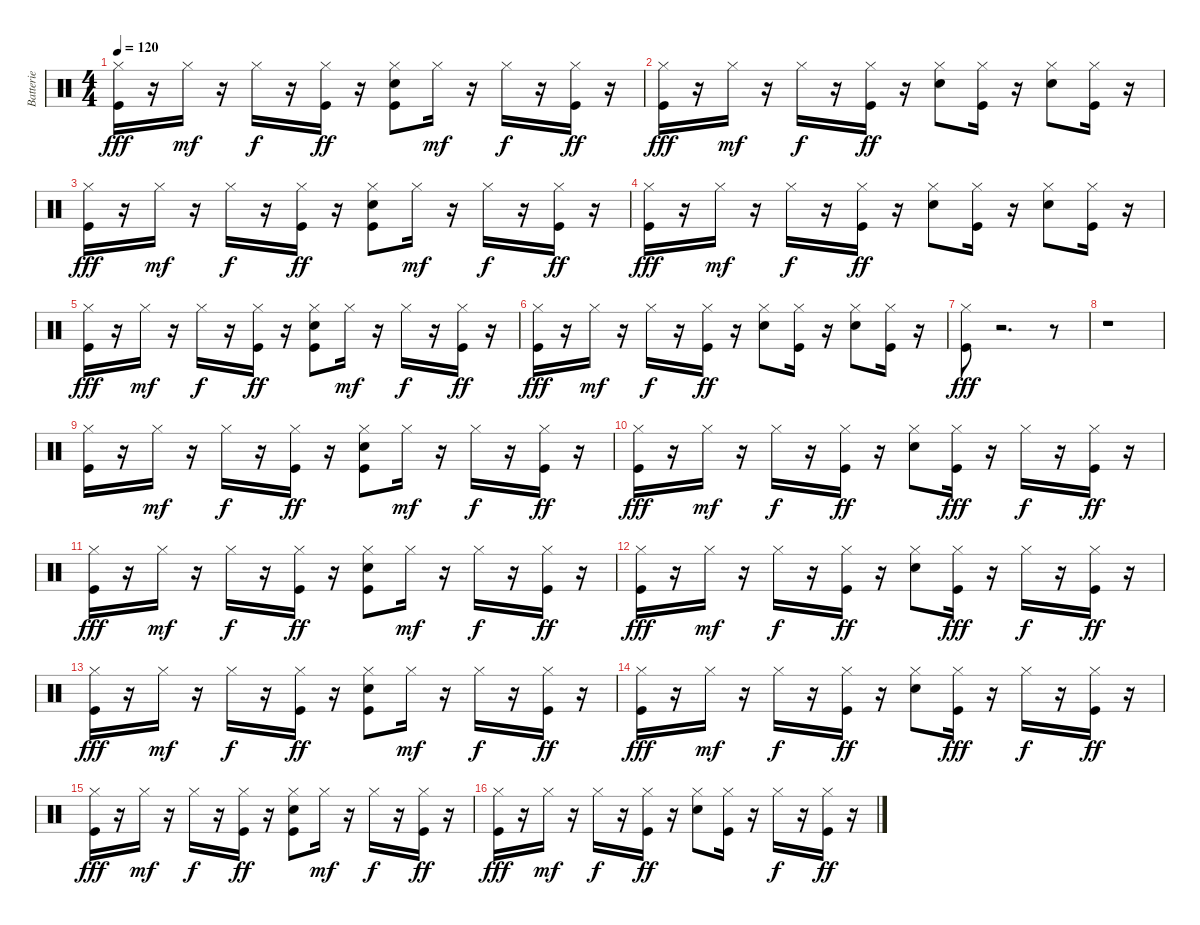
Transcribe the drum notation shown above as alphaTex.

\track ("Batterie" "Batterie") {instrument percussion}
\staff {score}
\articulation defaults
\ts (4 4)
\tempo 120
\clef neutral
\ks c
("Hi-Hat (closed)" "Kick (hit)").16{dy fff} r.16 "Hi-Hat (closed)".16{dy mf} r.16 "Hi-Hat (closed)".16{dy f} r.16 ("Hi-Hat (closed)" "Kick (hit)").16{dy ff} r.16 ("Hi-Hat (closed)" "Kick (hit)" "Electric Snare (hit)").8 "Hi-Hat (closed)".16{dy mf} r.16 "Hi-Hat (closed)".16{dy f} r.16 ("Hi-Hat (closed)" "Kick (hit)").16{dy ff} r.16 |
("Hi-Hat (closed)" "Kick (hit)").16{dy fff} r.16 "Hi-Hat (closed)".16{dy mf} r.16 "Hi-Hat (closed)".16{dy f} r.16 ("Hi-Hat (closed)" "Kick (hit)").16{dy ff} r.16 ("Hi-Hat (closed)" "Electric Snare (hit)").8 ("Hi-Hat (closed)" "Kick (hit)").16 r.16 ("Hi-Hat (closed)" "Electric Snare (hit)").8 ("Hi-Hat (closed)" "Kick (hit)").16 r.16 |
("Hi-Hat (closed)" "Kick (hit)").16{dy fff} r.16 "Hi-Hat (closed)".16{dy mf} r.16 "Hi-Hat (closed)".16{dy f} r.16 ("Hi-Hat (closed)" "Kick (hit)").16{dy ff} r.16 ("Hi-Hat (closed)" "Kick (hit)" "Electric Snare (hit)").8 "Hi-Hat (closed)".16{dy mf} r.16 "Hi-Hat (closed)".16{dy f} r.16 ("Hi-Hat (closed)" "Kick (hit)").16{dy ff} r.16 |
("Hi-Hat (closed)" "Kick (hit)").16{dy fff} r.16 "Hi-Hat (closed)".16{dy mf} r.16 "Hi-Hat (closed)".16{dy f} r.16 ("Hi-Hat (closed)" "Kick (hit)").16{dy ff} r.16 ("Hi-Hat (closed)" "Electric Snare (hit)").8 ("Hi-Hat (closed)" "Kick (hit)").16 r.16 ("Hi-Hat (closed)" "Electric Snare (hit)").8 ("Hi-Hat (closed)" "Kick (hit)").16 r.16 |
("Hi-Hat (closed)" "Kick (hit)").16{dy fff} r.16 "Hi-Hat (closed)".16{dy mf} r.16 "Hi-Hat (closed)".16{dy f} r.16 ("Hi-Hat (closed)" "Kick (hit)").16{dy ff} r.16 ("Hi-Hat (closed)" "Kick (hit)" "Electric Snare (hit)").8 "Hi-Hat (closed)".16{dy mf} r.16 "Hi-Hat (closed)".16{dy f} r.16 ("Hi-Hat (closed)" "Kick (hit)").16{dy ff} r.16 |
("Hi-Hat (closed)" "Kick (hit)").16{dy fff} r.16 "Hi-Hat (closed)".16{dy mf} r.16 "Hi-Hat (closed)".16{dy f} r.16 ("Hi-Hat (closed)" "Kick (hit)").16{dy ff} r.16 ("Hi-Hat (closed)" "Electric Snare (hit)").8 ("Hi-Hat (closed)" "Kick (hit)").16 r.16 ("Hi-Hat (closed)" "Electric Snare (hit)").8 ("Hi-Hat (closed)" "Kick (hit)").16 r.16 |
("Hi-Hat (closed)" "Kick (hit)").8{dy fff} r.2{d} r.8 |
r.1 |
("Hi-Hat (closed)" "Kick (hit)").16 r.16 "Hi-Hat (closed)".16{dy mf} r.16 "Hi-Hat (closed)".16{dy f} r.16 ("Hi-Hat (closed)" "Kick (hit)").16{dy ff} r.16 ("Hi-Hat (closed)" "Kick (hit)" "Electric Snare (hit)").8 "Hi-Hat (closed)".16{dy mf} r.16 "Hi-Hat (closed)".16{dy f} r.16 ("Hi-Hat (closed)" "Kick (hit)").16{dy ff} r.16 |
("Hi-Hat (closed)" "Kick (hit)").16{dy fff} r.16 "Hi-Hat (closed)".16{dy mf} r.16 "Hi-Hat (closed)".16{dy f} r.16 ("Hi-Hat (closed)" "Kick (hit)").16{dy ff} r.16 ("Hi-Hat (closed)" "Electric Snare (hit)").8 ("Hi-Hat (closed)" "Kick (hit)").16{dy fff} r.16 "Hi-Hat (closed)".16{dy f} r.16 ("Hi-Hat (closed)" "Kick (hit)").16{dy ff} r.16 |
("Hi-Hat (closed)" "Kick (hit)").16{dy fff} r.16 "Hi-Hat (closed)".16{dy mf} r.16 "Hi-Hat (closed)".16{dy f} r.16 ("Hi-Hat (closed)" "Kick (hit)").16{dy ff} r.16 ("Hi-Hat (closed)" "Kick (hit)" "Electric Snare (hit)").8 "Hi-Hat (closed)".16{dy mf} r.16 "Hi-Hat (closed)".16{dy f} r.16 ("Hi-Hat (closed)" "Kick (hit)").16{dy ff} r.16 |
("Hi-Hat (closed)" "Kick (hit)").16{dy fff} r.16 "Hi-Hat (closed)".16{dy mf} r.16 "Hi-Hat (closed)".16{dy f} r.16 ("Hi-Hat (closed)" "Kick (hit)").16{dy ff} r.16 ("Hi-Hat (closed)" "Electric Snare (hit)").8 ("Hi-Hat (closed)" "Kick (hit)").16{dy fff} r.16 "Hi-Hat (closed)".16{dy f} r.16 ("Hi-Hat (closed)" "Kick (hit)").16{dy ff} r.16 |
("Hi-Hat (closed)" "Kick (hit)").16{dy fff} r.16 "Hi-Hat (closed)".16{dy mf} r.16 "Hi-Hat (closed)".16{dy f} r.16 ("Hi-Hat (closed)" "Kick (hit)").16{dy ff} r.16 ("Hi-Hat (closed)" "Kick (hit)" "Electric Snare (hit)").8 "Hi-Hat (closed)".16{dy mf} r.16 "Hi-Hat (closed)".16{dy f} r.16 ("Hi-Hat (closed)" "Kick (hit)").16{dy ff} r.16 |
("Hi-Hat (closed)" "Kick (hit)").16{dy fff} r.16 "Hi-Hat (closed)".16{dy mf} r.16 "Hi-Hat (closed)".16{dy f} r.16 ("Hi-Hat (closed)" "Kick (hit)").16{dy ff} r.16 ("Hi-Hat (closed)" "Electric Snare (hit)").8 ("Hi-Hat (closed)" "Kick (hit)").16{dy fff} r.16 "Hi-Hat (closed)".16{dy f} r.16 ("Hi-Hat (closed)" "Kick (hit)").16{dy ff} r.16 |
("Hi-Hat (closed)" "Kick (hit)").16{dy fff} r.16 "Hi-Hat (closed)".16{dy mf} r.16 "Hi-Hat (closed)".16{dy f} r.16 ("Hi-Hat (closed)" "Kick (hit)").16{dy ff} r.16 ("Hi-Hat (closed)" "Kick (hit)" "Electric Snare (hit)").8 "Hi-Hat (closed)".16{dy mf} r.16 "Hi-Hat (closed)".16{dy f} r.16 ("Hi-Hat (closed)" "Kick (hit)").16{dy ff} r.16 |
("Hi-Hat (closed)" "Kick (hit)").16{dy fff} r.16 "Hi-Hat (closed)".16{dy mf} r.16 "Hi-Hat (closed)".16{dy f} r.16 ("Hi-Hat (closed)" "Kick (hit)").16{dy ff} r.16 ("Hi-Hat (closed)" "Electric Snare (hit)").8 ("Hi-Hat (closed)" "Kick (hit)").16 r.16 "Hi-Hat (closed)".16{dy f} r.16 ("Hi-Hat (closed)" "Kick (hit)").16{dy ff} r.16
